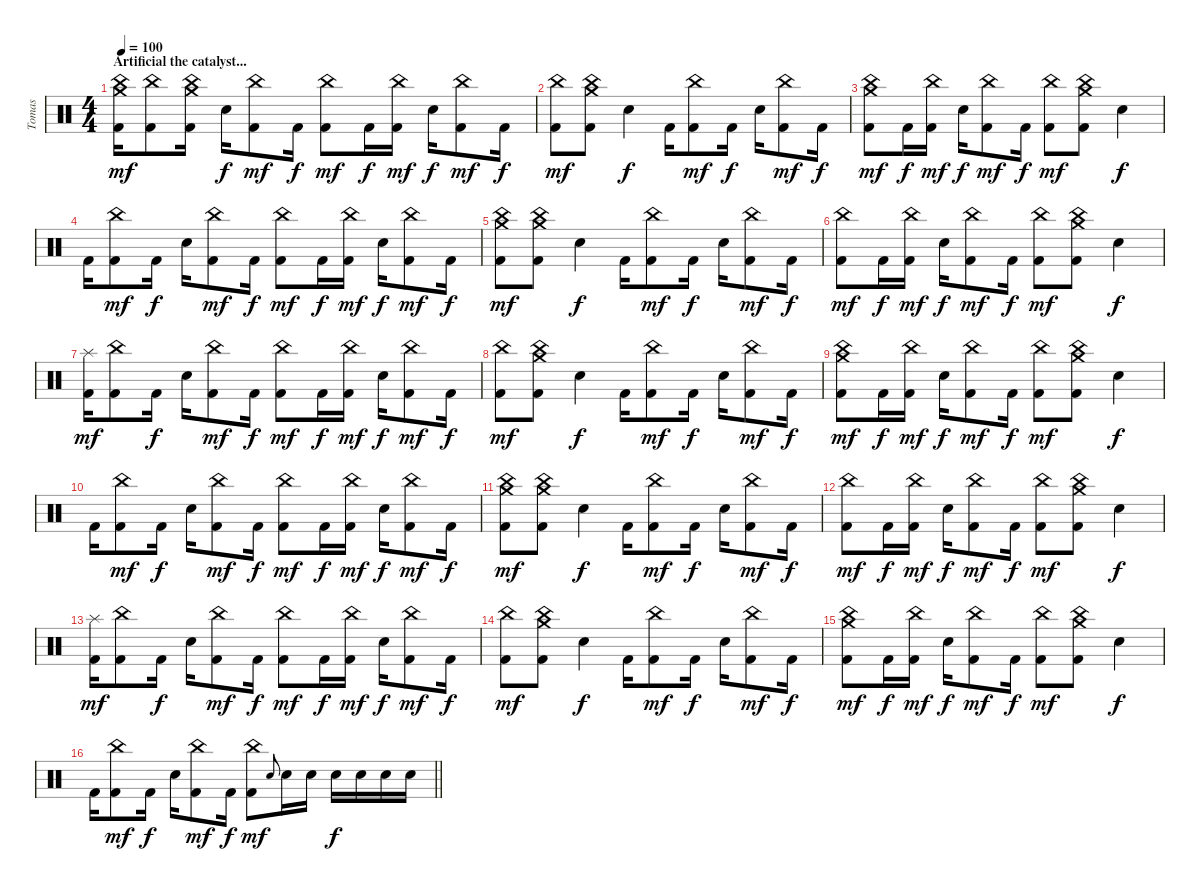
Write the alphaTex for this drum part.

\track ("Tomas" "Tomas") {instrument percussion}
\staff {score}
\articulation defaults
\ts (4 4)
\section ("" "Artificial the catalyst...")
\tempo 100
\clef neutral
\ks c
("China (hit)" "Crash medium (hit)" "Kick (hit) 2").16{dy mf} ("China (hit)" "Kick (hit) 2").8 ("China (hit)" "Crash medium (hit)" "Kick (hit) 2").16 "Electric Snare (hit)".16{dy f} ("China (hit)" "Kick (hit) 2").8{dy mf} "Kick (hit) 2".16{dy f} ("China (hit)" "Kick (hit) 2").8{dy mf} "Kick (hit) 2".16{dy f} ("China (hit)" "Kick (hit) 2").16{dy mf} "Electric Snare (hit)".16{dy f} ("China (hit)" "Kick (hit) 2").8{dy mf} "Kick (hit) 2".16{dy f} |
("China (hit)" "Kick (hit) 2").8{dy mf} ("China (hit)" "Crash medium (hit)" "Kick (hit) 2").8 "Electric Snare (hit)".4{dy f} "Kick (hit) 2".16 ("China (hit)" "Kick (hit) 2").8{dy mf} "Kick (hit) 2".16{dy f} "Electric Snare (hit)".16 ("China (hit)" "Kick (hit) 2").8{dy mf} "Kick (hit) 2".16{dy f} |
("China (hit)" "Crash medium (hit)" "Kick (hit) 2").8{dy mf} "Kick (hit) 2".16{dy f} ("China (hit)" "Kick (hit) 2").16{dy mf} "Electric Snare (hit)".16{dy f} ("China (hit)" "Kick (hit) 2").8{dy mf} "Kick (hit) 2".16{dy f} ("China (hit)" "Kick (hit) 2").8{dy mf} ("China (hit)" "Crash medium (hit)" "Kick (hit) 2").8 "Electric Snare (hit)".4{dy f} |
"Kick (hit) 2".16 ("China (hit)" "Kick (hit) 2").8{dy mf} "Kick (hit) 2".16{dy f} "Electric Snare (hit)".16 ("China (hit)" "Kick (hit) 2").8{dy mf} "Kick (hit) 2".16{dy f} ("China (hit)" "Kick (hit) 2").8{dy mf} "Kick (hit) 2".16{dy f} ("China (hit)" "Kick (hit) 2").16{dy mf} "Electric Snare (hit)".16{dy f} ("China (hit)" "Kick (hit) 2").8{dy mf} "Kick (hit) 2".16{dy f} |
("China (hit)" "Crash medium (hit)" "Kick (hit) 2").8{dy mf} ("China (hit)" "Crash medium (hit)" "Kick (hit) 2").8 "Electric Snare (hit)".4{dy f} "Kick (hit) 2".16 ("China (hit)" "Kick (hit) 2").8{dy mf} "Kick (hit) 2".16{dy f} "Electric Snare (hit)".16 ("China (hit)" "Kick (hit) 2").8{dy mf} "Kick (hit) 2".16{dy f} |
("China (hit)" "Kick (hit) 2").8{dy mf} "Kick (hit) 2".16{dy f} ("China (hit)" "Kick (hit) 2").16{dy mf} "Electric Snare (hit)".16{dy f} ("China (hit)" "Kick (hit) 2").8{dy mf} "Kick (hit) 2".16{dy f} ("China (hit)" "Kick (hit) 2").8{dy mf} ("China (hit)" "Crash medium (hit)" "Kick (hit) 2").8 "Electric Snare (hit)".4{dy f} |
("Splash (hit)" "Kick (hit) 2").16{dy mf} ("China (hit)" "Kick (hit) 2").8 "Kick (hit) 2".16{dy f} "Electric Snare (hit)".16 ("China (hit)" "Kick (hit) 2").8{dy mf} "Kick (hit) 2".16{dy f} ("China (hit)" "Kick (hit) 2").8{dy mf} "Kick (hit) 2".16{dy f} ("China (hit)" "Kick (hit) 2").16{dy mf} "Electric Snare (hit)".16{dy f} ("China (hit)" "Kick (hit) 2").8{dy mf} "Kick (hit) 2".16{dy f} |
("China (hit)" "Kick (hit) 2").8{dy mf} ("China (hit)" "Crash medium (hit)" "Kick (hit) 2").8 "Electric Snare (hit)".4{dy f} "Kick (hit) 2".16 ("China (hit)" "Kick (hit) 2").8{dy mf} "Kick (hit) 2".16{dy f} "Electric Snare (hit)".16 ("China (hit)" "Kick (hit) 2").8{dy mf} "Kick (hit) 2".16{dy f} |
("China (hit)" "Crash medium (hit)" "Kick (hit) 2").8{dy mf} "Kick (hit) 2".16{dy f} ("China (hit)" "Kick (hit) 2").16{dy mf} "Electric Snare (hit)".16{dy f} ("China (hit)" "Kick (hit) 2").8{dy mf} "Kick (hit) 2".16{dy f} ("China (hit)" "Kick (hit) 2").8{dy mf} ("China (hit)" "Crash medium (hit)" "Kick (hit) 2").8 "Electric Snare (hit)".4{dy f} |
"Kick (hit) 2".16 ("China (hit)" "Kick (hit) 2").8{dy mf} "Kick (hit) 2".16{dy f} "Electric Snare (hit)".16 ("China (hit)" "Kick (hit) 2").8{dy mf} "Kick (hit) 2".16{dy f} ("China (hit)" "Kick (hit) 2").8{dy mf} "Kick (hit) 2".16{dy f} ("China (hit)" "Kick (hit) 2").16{dy mf} "Electric Snare (hit)".16{dy f} ("China (hit)" "Kick (hit) 2").8{dy mf} "Kick (hit) 2".16{dy f} |
("China (hit)" "Crash medium (hit)" "Kick (hit) 2").8{dy mf} ("China (hit)" "Crash medium (hit)" "Kick (hit) 2").8 "Electric Snare (hit)".4{dy f} "Kick (hit) 2".16 ("China (hit)" "Kick (hit) 2").8{dy mf} "Kick (hit) 2".16{dy f} "Electric Snare (hit)".16 ("China (hit)" "Kick (hit) 2").8{dy mf} "Kick (hit) 2".16{dy f} |
("China (hit)" "Kick (hit) 2").8{dy mf} "Kick (hit) 2".16{dy f} ("China (hit)" "Kick (hit) 2").16{dy mf} "Electric Snare (hit)".16{dy f} ("China (hit)" "Kick (hit) 2").8{dy mf} "Kick (hit) 2".16{dy f} ("China (hit)" "Kick (hit) 2").8{dy mf} ("China (hit)" "Crash medium (hit)" "Kick (hit) 2").8 "Electric Snare (hit)".4{dy f} |
("Splash (hit)" "Kick (hit) 2").16{dy mf} ("China (hit)" "Kick (hit) 2").8 "Kick (hit) 2".16{dy f} "Electric Snare (hit)".16 ("China (hit)" "Kick (hit) 2").8{dy mf} "Kick (hit) 2".16{dy f} ("China (hit)" "Kick (hit) 2").8{dy mf} "Kick (hit) 2".16{dy f} ("China (hit)" "Kick (hit) 2").16{dy mf} "Electric Snare (hit)".16{dy f} ("China (hit)" "Kick (hit) 2").8{dy mf} "Kick (hit) 2".16{dy f} |
("China (hit)" "Kick (hit) 2").8{dy mf} ("China (hit)" "Crash medium (hit)" "Kick (hit) 2").8 "Electric Snare (hit)".4{dy f} "Kick (hit) 2".16 ("China (hit)" "Kick (hit) 2").8{dy mf} "Kick (hit) 2".16{dy f} "Electric Snare (hit)".16 ("China (hit)" "Kick (hit) 2").8{dy mf} "Kick (hit) 2".16{dy f} |
("China (hit)" "Crash medium (hit)" "Kick (hit) 2").8{dy mf} "Kick (hit) 2".16{dy f} ("China (hit)" "Kick (hit) 2").16{dy mf} "Electric Snare (hit)".16{dy f} ("China (hit)" "Kick (hit) 2").8{dy mf} "Kick (hit) 2".16{dy f} ("China (hit)" "Kick (hit) 2").8{dy mf} ("China (hit)" "Crash medium (hit)" "Kick (hit) 2").8 "Electric Snare (hit)".4{dy f} |
\barLineRight lightlight "Kick (hit) 2".16
("China (hit)" "Kick (hit) 2").8{dy mf} "Kick (hit) 2".16{dy f} "Electric Snare (hit)".16 ("China (hit)" "Kick (hit) 2").8{dy mf} "Kick (hit) 2".16{dy f} ("China (hit)" "Kick (hit) 2").8{dy mf} "Electric Snare (hit)".8{gr onbeat} "Electric Snare (hit)".16 "Electric Snare (hit)".16 "Electric Snare (hit)".16{dy f} "Electric Snare (hit)".16 "Electric Snare (hit)".16 "Electric Snare (hit)".16
